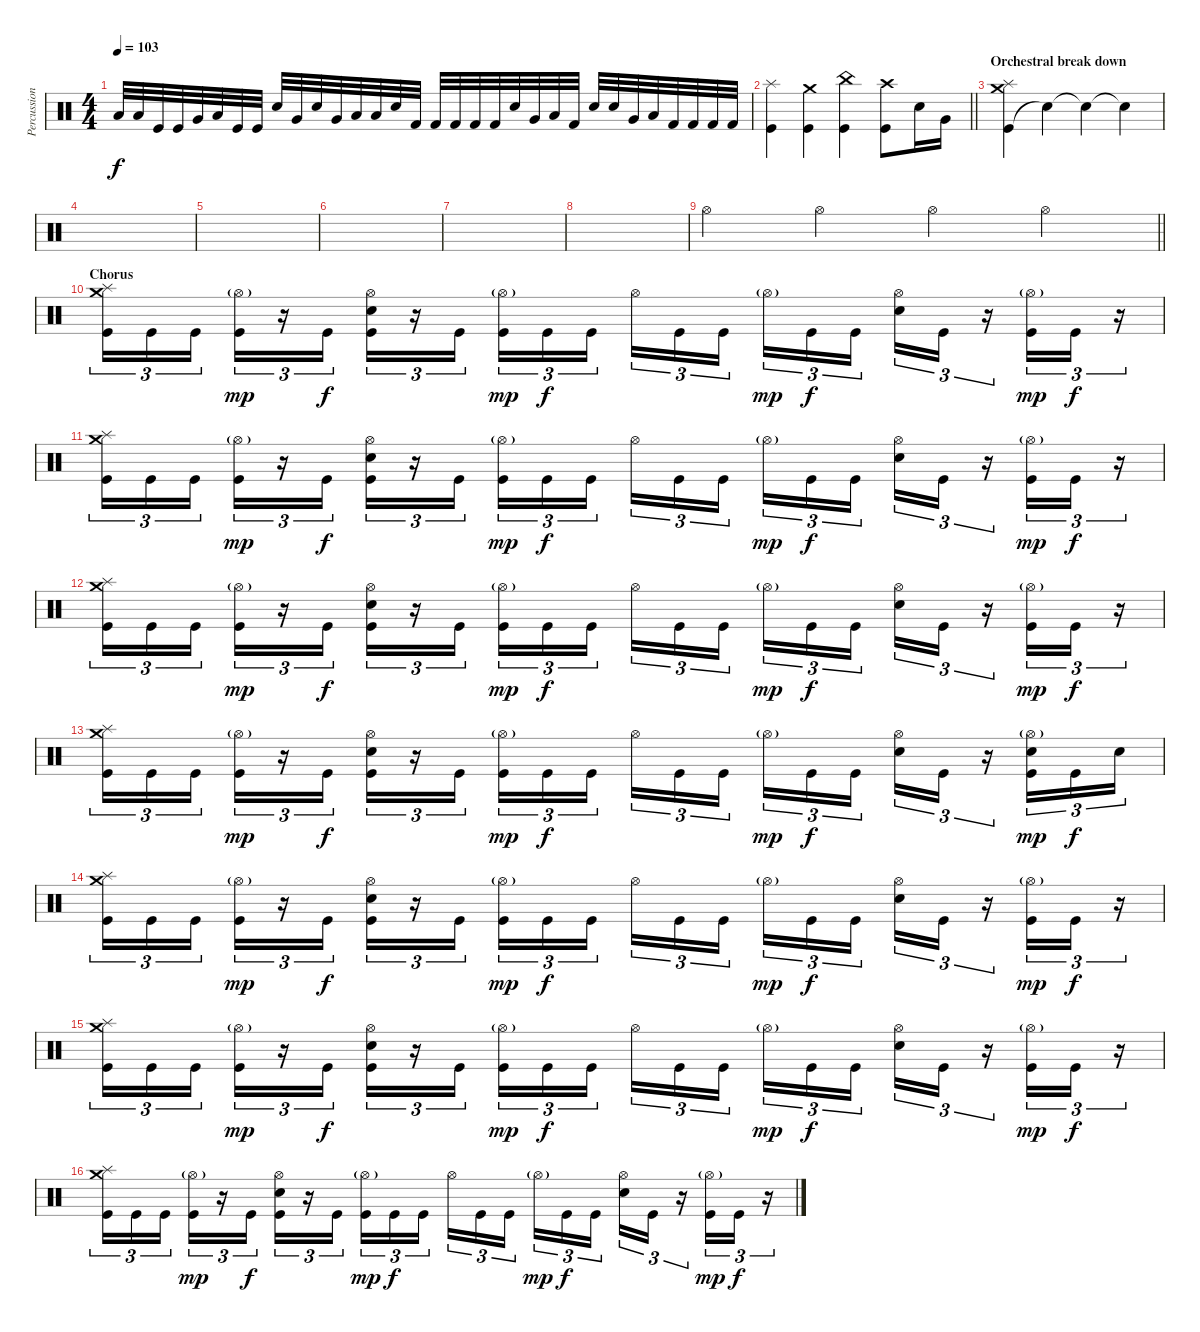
\track ("Percussion" "Percussion") {instrument percussion}
\staff {score}
\articulation defaults
\ts (4 4)
\tempo 103
\clef neutral
\ks c "Low Tom (hit)".32{dy f} "Low Tom (hit)".32 "Kick (hit)".32 "Kick (hit)".32 "Very Low Tom (hit)".32 "Low Floor Tom (hit)".32 "Kick (hit)".32 "Kick (hit)".32 "Electric Snare (hit)".32 "Very Low Tom (hit)".32 "Electric Snare (hit)".32 "Very Low Tom (hit)".32 "Low Floor Tom (hit)".32 "Low Floor Tom (hit)".32 "Electric Snare (hit)".32 "Kick (hit) 2".32 "Kick (hit) 2".32 "Kick (hit) 2".32 "Kick (hit) 2".32 "Kick (hit) 2".32 "Electric Snare (hit)".32 "Very Low Tom (hit)".32 "Low Floor Tom (hit)".32 "Kick (hit) 2".32 "Electric Snare (hit)".32 "Electric Snare (hit)".32 "Very Low Tom (hit)".32 "Low Floor Tom (hit)".32 "Kick (hit) 2".32 "Kick (hit) 2".32 "Kick (hit) 2".32 "Kick (hit) 2".32
|
\barLineRight lightlight
("Kick (hit)" "Splash (hit)").4 ("Kick (hit)" "Crash medium (hit)").4 ("Kick (hit)" "China (hit)").4 ("Kick (hit)" "Crash high (hit)").8 "Electric Snare (hit)".16 "Very Low Tom (hit)".16 |
\section ("" "Orchestral break down")
("Kick (hit)" "Splash (hit)" "Crash medium (hit)").4 "Snare (hit)"{t}.4 "Snare (hit)"{t}.4 "Snare (hit)"{t}.4 |
|
|
|
|
|
\barLineRight lightlight "Hi-Hat (open)".4 "Hi-Hat (open)".4 "Hi-Hat (open)".4 "Hi-Hat (open)".4
|
\section ("" "Chorus")
("Crash medium (hit)" "Splash (hit)" "Kick (hit)").16{tu (3 2)} "Kick (hit)".16{tu (3 2)} "Kick (hit)".16{tu (3 2) beam splitsecondary} ("Hi-Hat (open)"{g} "Kick (hit)").16{tu (3 2) dy mp} r.16{tu (3 2)} "Kick (hit)".16{tu (3 2) dy f} ("Hi-Hat (open)" "Electric Snare (hit)" "Kick (hit)").16{tu (3 2)} r.16{tu (3 2)} "Kick (hit)".16{tu (3 2) beam splitsecondary} ("Hi-Hat (open)"{g} "Kick (hit)").16{tu (3 2) dy mp} "Kick (hit)".16{tu (3 2) dy f} "Kick (hit)".16{tu (3 2)} "Hi-Hat (open)".16{tu (3 2)} "Kick (hit)".16{tu (3 2)} "Kick (hit)".16{tu (3 2) beam splitsecondary} "Hi-Hat (open)"{g}.16{tu (3 2) dy mp} "Kick (hit)".16{tu (3 2) dy f} "Kick (hit)".16{tu (3 2)} ("Hi-Hat (open)" "Electric Snare (hit)").16{tu (3 2)} "Kick (hit)".16{tu (3 2)} r.16{tu (3 2)} ("Hi-Hat (open)"{g} "Kick (hit)").16{tu (3 2) dy mp} "Kick (hit)".16{tu (3 2) dy f} r.16{tu (3 2)} |
("Crash medium (hit)" "Splash (hit)" "Kick (hit)").16{tu (3 2)} "Kick (hit)".16{tu (3 2)} "Kick (hit)".16{tu (3 2) beam splitsecondary} ("Hi-Hat (open)"{g} "Kick (hit)").16{tu (3 2) dy mp} r.16{tu (3 2)} "Kick (hit)".16{tu (3 2) dy f} ("Hi-Hat (open)" "Electric Snare (hit)" "Kick (hit)").16{tu (3 2)} r.16{tu (3 2)} "Kick (hit)".16{tu (3 2) beam splitsecondary} ("Hi-Hat (open)"{g} "Kick (hit)").16{tu (3 2) dy mp} "Kick (hit)".16{tu (3 2) dy f} "Kick (hit)".16{tu (3 2)} "Hi-Hat (open)".16{tu (3 2)} "Kick (hit)".16{tu (3 2)} "Kick (hit)".16{tu (3 2) beam splitsecondary} "Hi-Hat (open)"{g}.16{tu (3 2) dy mp} "Kick (hit)".16{tu (3 2) dy f} "Kick (hit)".16{tu (3 2)} ("Hi-Hat (open)" "Electric Snare (hit)").16{tu (3 2)} "Kick (hit)".16{tu (3 2)} r.16{tu (3 2)} ("Hi-Hat (open)"{g} "Kick (hit)").16{tu (3 2) dy mp} "Kick (hit)".16{tu (3 2) dy f} r.16{tu (3 2)} |
("Crash medium (hit)" "Splash (hit)" "Kick (hit)").16{tu (3 2)} "Kick (hit)".16{tu (3 2)} "Kick (hit)".16{tu (3 2) beam splitsecondary} ("Hi-Hat (open)"{g} "Kick (hit)").16{tu (3 2) dy mp} r.16{tu (3 2)} "Kick (hit)".16{tu (3 2) dy f} ("Hi-Hat (open)" "Electric Snare (hit)" "Kick (hit)").16{tu (3 2)} r.16{tu (3 2)} "Kick (hit)".16{tu (3 2) beam splitsecondary} ("Hi-Hat (open)"{g} "Kick (hit)").16{tu (3 2) dy mp} "Kick (hit)".16{tu (3 2) dy f} "Kick (hit)".16{tu (3 2)} "Hi-Hat (open)".16{tu (3 2)} "Kick (hit)".16{tu (3 2)} "Kick (hit)".16{tu (3 2) beam splitsecondary} "Hi-Hat (open)"{g}.16{tu (3 2) dy mp} "Kick (hit)".16{tu (3 2) dy f} "Kick (hit)".16{tu (3 2)} ("Hi-Hat (open)" "Electric Snare (hit)").16{tu (3 2)} "Kick (hit)".16{tu (3 2)} r.16{tu (3 2)} ("Hi-Hat (open)"{g} "Kick (hit)").16{tu (3 2) dy mp} "Kick (hit)".16{tu (3 2) dy f} r.16{tu (3 2)} |
("Crash medium (hit)" "Splash (hit)" "Kick (hit)").16{tu (3 2)} "Kick (hit)".16{tu (3 2)} "Kick (hit)".16{tu (3 2) beam splitsecondary} ("Hi-Hat (open)"{g} "Kick (hit)").16{tu (3 2) dy mp} r.16{tu (3 2)} "Kick (hit)".16{tu (3 2) dy f} ("Hi-Hat (open)" "Electric Snare (hit)" "Kick (hit)").16{tu (3 2)} r.16{tu (3 2)} "Kick (hit)".16{tu (3 2) beam splitsecondary} ("Hi-Hat (open)"{g} "Kick (hit)").16{tu (3 2) dy mp} "Kick (hit)".16{tu (3 2) dy f} "Kick (hit)".16{tu (3 2)} "Hi-Hat (open)".16{tu (3 2)} "Kick (hit)".16{tu (3 2)} "Kick (hit)".16{tu (3 2) beam splitsecondary} "Hi-Hat (open)"{g}.16{tu (3 2) dy mp} "Kick (hit)".16{tu (3 2) dy f} "Kick (hit)".16{tu (3 2)} ("Hi-Hat (open)" "Electric Snare (hit)").16{tu (3 2)} "Kick (hit)".16{tu (3 2)} r.16{tu (3 2)} ("Hi-Hat (open)"{g} "Electric Snare (hit)" "Kick (hit)").16{tu (3 2) dy mp} "Kick (hit)".16{tu (3 2) dy f} "Electric Snare (hit)".16{tu (3 2)} |
("Crash medium (hit)" "Splash (hit)" "Kick (hit)").16{tu (3 2)} "Kick (hit)".16{tu (3 2)} "Kick (hit)".16{tu (3 2) beam splitsecondary} ("Hi-Hat (open)"{g} "Kick (hit)").16{tu (3 2) dy mp} r.16{tu (3 2)} "Kick (hit)".16{tu (3 2) dy f} ("Hi-Hat (open)" "Electric Snare (hit)" "Kick (hit)").16{tu (3 2)} r.16{tu (3 2)} "Kick (hit)".16{tu (3 2) beam splitsecondary} ("Hi-Hat (open)"{g} "Kick (hit)").16{tu (3 2) dy mp} "Kick (hit)".16{tu (3 2) dy f} "Kick (hit)".16{tu (3 2)} "Hi-Hat (open)".16{tu (3 2)} "Kick (hit)".16{tu (3 2)} "Kick (hit)".16{tu (3 2) beam splitsecondary} "Hi-Hat (open)"{g}.16{tu (3 2) dy mp} "Kick (hit)".16{tu (3 2) dy f} "Kick (hit)".16{tu (3 2)} ("Hi-Hat (open)" "Electric Snare (hit)").16{tu (3 2)} "Kick (hit)".16{tu (3 2)} r.16{tu (3 2)} ("Hi-Hat (open)"{g} "Kick (hit)").16{tu (3 2) dy mp} "Kick (hit)".16{tu (3 2) dy f} r.16{tu (3 2)} |
("Crash medium (hit)" "Splash (hit)" "Kick (hit)").16{tu (3 2)} "Kick (hit)".16{tu (3 2)} "Kick (hit)".16{tu (3 2) beam splitsecondary} ("Hi-Hat (open)"{g} "Kick (hit)").16{tu (3 2) dy mp} r.16{tu (3 2)} "Kick (hit)".16{tu (3 2) dy f} ("Hi-Hat (open)" "Electric Snare (hit)" "Kick (hit)").16{tu (3 2)} r.16{tu (3 2)} "Kick (hit)".16{tu (3 2) beam splitsecondary} ("Hi-Hat (open)"{g} "Kick (hit)").16{tu (3 2) dy mp} "Kick (hit)".16{tu (3 2) dy f} "Kick (hit)".16{tu (3 2)} "Hi-Hat (open)".16{tu (3 2)} "Kick (hit)".16{tu (3 2)} "Kick (hit)".16{tu (3 2) beam splitsecondary} "Hi-Hat (open)"{g}.16{tu (3 2) dy mp} "Kick (hit)".16{tu (3 2) dy f} "Kick (hit)".16{tu (3 2)} ("Hi-Hat (open)" "Electric Snare (hit)").16{tu (3 2)} "Kick (hit)".16{tu (3 2)} r.16{tu (3 2)} ("Hi-Hat (open)"{g} "Kick (hit)").16{tu (3 2) dy mp} "Kick (hit)".16{tu (3 2) dy f} r.16{tu (3 2)} |
("Crash medium (hit)" "Splash (hit)" "Kick (hit)").16{tu (3 2)} "Kick (hit)".16{tu (3 2)} "Kick (hit)".16{tu (3 2) beam splitsecondary} ("Hi-Hat (open)"{g} "Kick (hit)").16{tu (3 2) dy mp} r.16{tu (3 2)} "Kick (hit)".16{tu (3 2) dy f} ("Hi-Hat (open)" "Electric Snare (hit)" "Kick (hit)").16{tu (3 2)} r.16{tu (3 2)} "Kick (hit)".16{tu (3 2) beam splitsecondary} ("Hi-Hat (open)"{g} "Kick (hit)").16{tu (3 2) dy mp} "Kick (hit)".16{tu (3 2) dy f} "Kick (hit)".16{tu (3 2)} "Hi-Hat (open)".16{tu (3 2)} "Kick (hit)".16{tu (3 2)} "Kick (hit)".16{tu (3 2) beam splitsecondary} "Hi-Hat (open)"{g}.16{tu (3 2) dy mp} "Kick (hit)".16{tu (3 2) dy f} "Kick (hit)".16{tu (3 2)} ("Hi-Hat (open)" "Electric Snare (hit)").16{tu (3 2)} "Kick (hit)".16{tu (3 2)} r.16{tu (3 2)} ("Hi-Hat (open)"{g} "Kick (hit)").16{tu (3 2) dy mp} "Kick (hit)".16{tu (3 2) dy f} r.16{tu (3 2)}
